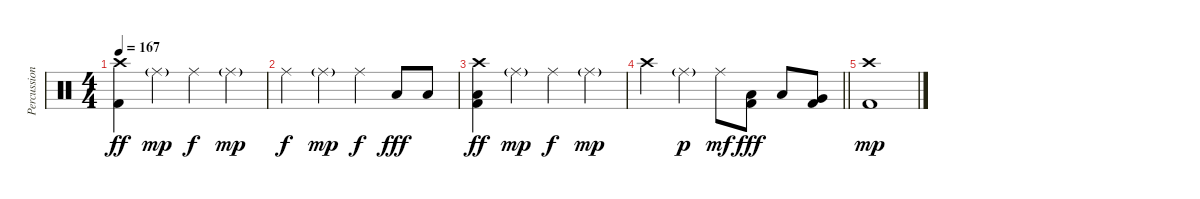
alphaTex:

\track ("Percussion" "Percussion") {instrument percussion}
\staff {score}
\articulation defaults
\ts (4 4)
\tempo 167
\clef neutral
\ks c
("Crash high (hit)" "Kick (hit) 2").4{dy ff} "Ride (middle)"{g}.4{dy mp} "Ride (middle)".4{dy f} "Ride (middle)"{g}.4{dy mp} |
"Ride (middle)".4{dy f} "Ride (middle)"{g}.4{dy mp} "Ride (middle)".4{dy f} "Low Tom (hit)".8{dy fff} "Low Tom (hit)".8 |
("Crash high (hit)" "Low Tom (hit)" "Kick (hit) 2").4{dy ff} "Ride (middle)"{g}.4{dy mp} "Ride (middle)".4{dy f} "Ride (middle)"{g}.4{dy mp} |
\barLineRight lightlight "Crash high (hit)".4 "Ride (middle)"{g}.4{dy p} "Ride (middle)".8{dy mf}
("Low Tom (hit)" "Kick (hit) 2").8{dy fff} "Low Tom (hit)".8 ("Very Low Tom (hit)" "Kick (hit) 2").8 |
("Crash high (hit)" "Kick (hit) 2").1{dy mp}
